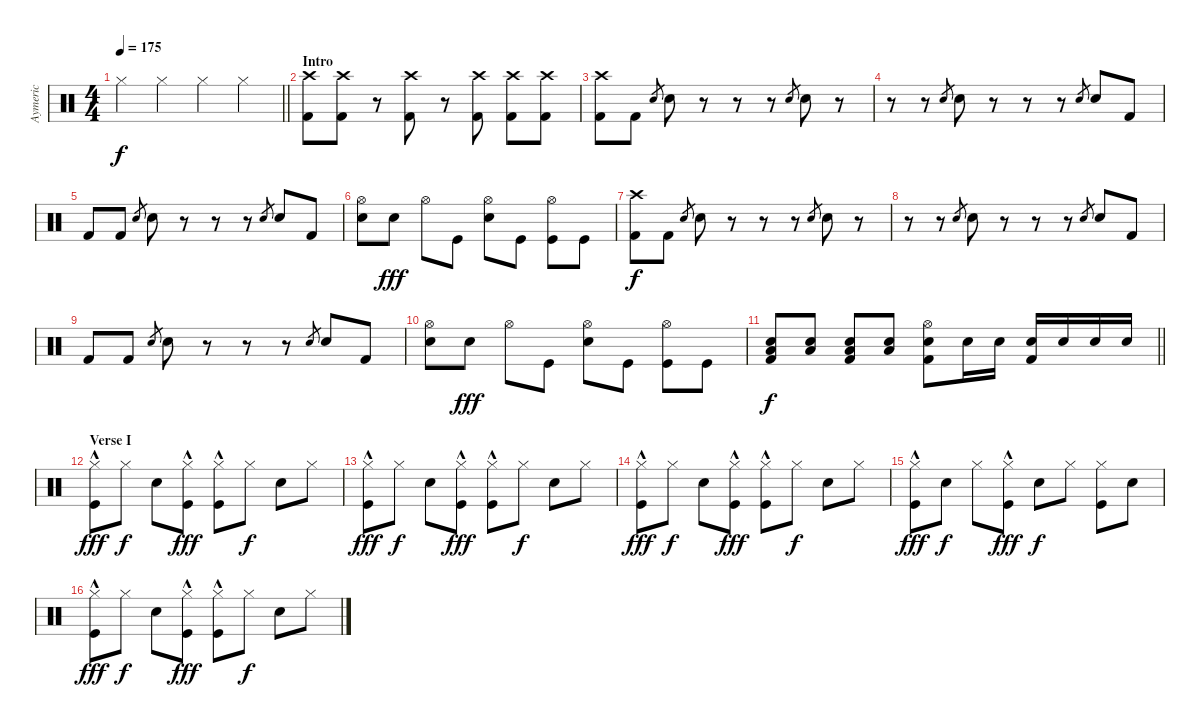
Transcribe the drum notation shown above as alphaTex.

\track ("Aymeric" "Aymeric") {instrument percussion}
\staff {score}
\articulation defaults
\ts (4 4)
\tempo 175
\clef neutral
\barLineRight lightlight
\ks c "Hi-Hat (closed)".4{dy f} "Hi-Hat (closed)".4 "Hi-Hat (closed)".4 "Hi-Hat (closed)".4
|
\section ("" "Intro")
("Crash high (hit)" "Kick (hit) 2").8 ("Crash high (hit)" "Kick (hit) 2").8 r.8 ("Crash high (hit)" "Kick (hit) 2").8 r.8 ("Crash high (hit)" "Kick (hit) 2").8 ("Crash high (hit)" "Kick (hit) 2").8 ("Crash high (hit)" "Kick (hit) 2").8 |
("Crash high (hit)" "Kick (hit) 2").8 "Kick (hit) 2".8 "Electric Snare (hit)".8{gr} "Electric Snare (hit)".8 r.8 r.8 r.8 "Electric Snare (hit)".8{gr} "Electric Snare (hit)".8 r.8 |
r.8 r.8 "Electric Snare (hit)".8{gr} "Electric Snare (hit)".8 r.8 r.8 r.8 "Electric Snare (hit)".8{gr} "Electric Snare (hit)".8 "Kick (hit) 2".8 |
"Kick (hit) 2".8 "Kick (hit) 2".8 "Electric Snare (hit)".8{gr} "Electric Snare (hit)".8 r.8 r.8 r.8 "Electric Snare (hit)".8{gr} "Electric Snare (hit)".8 "Kick (hit) 2".8 |
("Hi-Hat (open)" "Snare (hit) 2").8 "Snare (hit) 2".8{dy fff} "Hi-Hat (open)".8 "Kick (hit)".8 ("Hi-Hat (open)" "Snare (hit) 2").8 "Kick (hit)".8 ("Hi-Hat (open)" "Kick (hit)").8 "Kick (hit)".8 |
("Crash high (hit)" "Kick (hit) 2").8{dy f} "Kick (hit) 2".8 "Electric Snare (hit)".8{gr} "Electric Snare (hit)".8 r.8 r.8 r.8 "Electric Snare (hit)".8{gr} "Electric Snare (hit)".8 r.8 |
r.8 r.8 "Electric Snare (hit)".8{gr} "Electric Snare (hit)".8 r.8 r.8 r.8 "Electric Snare (hit)".8{gr} "Electric Snare (hit)".8 "Kick (hit) 2".8 |
"Kick (hit) 2".8 "Kick (hit) 2".8 "Electric Snare (hit)".8{gr} "Electric Snare (hit)".8 r.8 r.8 r.8 "Electric Snare (hit)".8{gr} "Electric Snare (hit)".8 "Kick (hit) 2".8 |
("Hi-Hat (open)" "Snare (hit) 2").8 "Snare (hit) 2".8{dy fff} "Hi-Hat (open)".8 "Kick (hit)".8 ("Hi-Hat (open)" "Snare (hit) 2").8 "Kick (hit)".8 ("Hi-Hat (open)" "Kick (hit)").8 "Kick (hit)".8 |
\barLineRight lightlight
("Electric Snare (hit)" "Low Floor Tom (hit)" "Kick (hit) 2").8{dy f} ("Electric Snare (hit)" "Low Floor Tom (hit)").8 ("Electric Snare (hit)" "Low Floor Tom (hit)" "Kick (hit) 2").8 ("Electric Snare (hit)" "Low Floor Tom (hit)").8 ("Hi-Hat (open)" "Electric Snare (hit)" "Kick (hit) 2").8 "Electric Snare (hit)".16 "Electric Snare (hit)".16 ("Electric Snare (hit)" "Kick (hit) 2").16 "Electric Snare (hit)".16 "Electric Snare (hit)".16 "Electric Snare (hit)".16 |
\section ("" "Verse I")
("Hi-Hat (closed)" "Kick (hit)"{hac}).8{dy fff} "Hi-Hat (closed)".8{dy f} "Snare (hit) 2".8 ("Hi-Hat (closed)" "Kick (hit)"{hac}).8{dy fff} ("Hi-Hat (closed)" "Kick (hit)"{hac}).8 "Hi-Hat (closed)".8{dy f} "Snare (hit) 2".8 "Hi-Hat (closed)".8 |
("Hi-Hat (closed)" "Kick (hit)"{hac}).8{dy fff} "Hi-Hat (closed)".8{dy f} "Snare (hit) 2".8 ("Hi-Hat (closed)" "Kick (hit)"{hac}).8{dy fff} ("Hi-Hat (closed)" "Kick (hit)"{hac}).8 "Hi-Hat (closed)".8{dy f} "Snare (hit) 2".8 "Hi-Hat (closed)".8 |
("Hi-Hat (closed)" "Kick (hit)"{hac}).8{dy fff} "Hi-Hat (closed)".8{dy f} "Snare (hit) 2".8 ("Hi-Hat (closed)" "Kick (hit)"{hac}).8{dy fff} ("Hi-Hat (closed)" "Kick (hit)"{hac}).8 "Hi-Hat (closed)".8{dy f} "Snare (hit) 2".8 "Hi-Hat (closed)".8 |
("Hi-Hat (closed)" "Kick (hit)"{hac}).8{dy fff} "Snare (hit) 2".8{dy f} "Hi-Hat (closed)".8 ("Hi-Hat (closed)" "Kick (hit)"{hac}).8{dy fff} "Snare (hit) 2".8{dy f} "Hi-Hat (closed)".8 ("Hi-Hat (closed)" "Kick (hit)").8 "Snare (hit) 2".8 |
("Hi-Hat (closed)" "Kick (hit)"{hac}).8{dy fff} "Hi-Hat (closed)".8{dy f} "Snare (hit) 2".8 ("Hi-Hat (closed)" "Kick (hit)"{hac}).8{dy fff} ("Hi-Hat (closed)" "Kick (hit)"{hac}).8 "Hi-Hat (closed)".8{dy f} "Snare (hit) 2".8 "Hi-Hat (closed)".8
